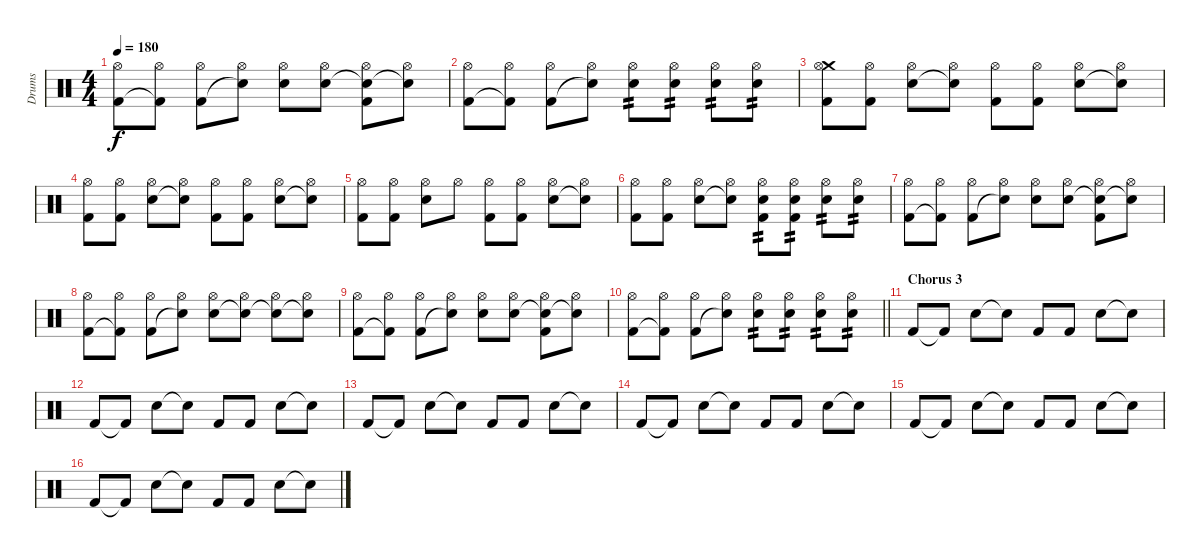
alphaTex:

\track ("Drums" "Drums") {instrument percussion}
\staff {score}
\articulation defaults
\ts (4 4)
\tempo 180
\clef neutral
\ks c
("Hi-Hat (open)" "Kick (hit) 2").8{dy f} ("Hi-Hat (open)" "Kick (hit) 2"{t}).8 ("Hi-Hat (open)" "Kick (hit) 2").8 ("Hi-Hat (open)" "Snare (hit)"{t}).8 ("Hi-Hat (open)" "Electric Snare (hit)").8 ("Hi-Hat (open)" "Electric Snare (hit)").8 ("Hi-Hat (open)" "Electric Snare (hit)"{t} "Kick (hit) 2").8 ("Hi-Hat (open)" "Snare (hit)"{t}).8 |
("Hi-Hat (open)" "Kick (hit) 2").8 ("Hi-Hat (open)" "Kick (hit) 2"{t}).8 ("Hi-Hat (open)" "Kick (hit) 2").8 ("Hi-Hat (open)" "Snare (hit)"{t}).8 ("Hi-Hat (open)" "Electric Snare (hit)").8{tp 2} ("Hi-Hat (open)" "Electric Snare (hit)").8{tp 2} ("Hi-Hat (open)" "Electric Snare (hit)").8{tp 2} ("Hi-Hat (open)" "Electric Snare (hit)").8{tp 2} |
("Crash medium (hit)" "Hi-Hat (open)" "Kick (hit) 2").8 ("Hi-Hat (open)" "Kick (hit) 2").8 ("Hi-Hat (open)" "Electric Snare (hit)").8 ("Hi-Hat (open)" "Snare (hit)"{t}).8 ("Hi-Hat (open)" "Kick (hit) 2").8 ("Hi-Hat (open)" "Kick (hit) 2").8 ("Hi-Hat (open)" "Electric Snare (hit)").8 ("Hi-Hat (open)" "Snare (hit)"{t}).8 |
("Hi-Hat (open)" "Kick (hit) 2").8 ("Hi-Hat (open)" "Kick (hit) 2").8 ("Hi-Hat (open)" "Electric Snare (hit)").8 ("Hi-Hat (open)" "Snare (hit)"{t}).8 ("Hi-Hat (open)" "Kick (hit) 2").8 ("Hi-Hat (open)" "Kick (hit) 2").8 ("Hi-Hat (open)" "Electric Snare (hit)").8 ("Hi-Hat (open)" "Snare (hit)"{t}).8 |
("Hi-Hat (open)" "Kick (hit) 2").8 ("Hi-Hat (open)" "Kick (hit) 2").8 ("Hi-Hat (open)" "Electric Snare (hit)").8 "Hi-Hat (open)".8 ("Hi-Hat (open)" "Kick (hit) 2").8 ("Hi-Hat (open)" "Kick (hit) 2").8 ("Hi-Hat (open)" "Electric Snare (hit)").8 ("Hi-Hat (open)" "Snare (hit)"{t}).8 |
("Hi-Hat (open)" "Kick (hit) 2").8 ("Hi-Hat (open)" "Kick (hit) 2").8 ("Hi-Hat (open)" "Electric Snare (hit)").8 ("Hi-Hat (open)" "Snare (hit)"{t}).8 ("Hi-Hat (open)" "Electric Snare (hit)" "Kick (hit) 2").8{tp 2} ("Hi-Hat (open)" "Electric Snare (hit)" "Kick (hit) 2").8{tp 2} ("Hi-Hat (open)" "Electric Snare (hit)").8{tp 2} ("Hi-Hat (open)" "Electric Snare (hit)").8{tp 2} |
("Hi-Hat (open)" "Kick (hit) 2").8 ("Hi-Hat (open)" "Kick (hit) 2"{t}).8 ("Hi-Hat (open)" "Kick (hit) 2").8 ("Hi-Hat (open)" "Snare (hit)"{t}).8 ("Hi-Hat (open)" "Electric Snare (hit)").8 ("Hi-Hat (open)" "Electric Snare (hit)").8 ("Hi-Hat (open)" "Electric Snare (hit)"{t} "Kick (hit) 2").8 ("Hi-Hat (open)" "Snare (hit)"{t}).8 |
("Hi-Hat (open)" "Kick (hit) 2").8 ("Hi-Hat (open)" "Kick (hit) 2"{t}).8 ("Hi-Hat (open)" "Kick (hit) 2").8 ("Hi-Hat (open)" "Snare (hit)"{t}).8 ("Hi-Hat (open)" "Electric Snare (hit)").8 ("Hi-Hat (open)" "Electric Snare (hit)"{t}).8 ("Hi-Hat (open)" "Electric Snare (hit)"{t}).8 ("Hi-Hat (open)" "Snare (hit)"{t}).8 |
("Hi-Hat (open)" "Kick (hit) 2").8 ("Hi-Hat (open)" "Kick (hit) 2"{t}).8 ("Hi-Hat (open)" "Kick (hit) 2").8 ("Hi-Hat (open)" "Snare (hit)"{t}).8 ("Hi-Hat (open)" "Electric Snare (hit)").8 ("Hi-Hat (open)" "Electric Snare (hit)").8 ("Hi-Hat (open)" "Electric Snare (hit)"{t} "Kick (hit) 2").8 ("Hi-Hat (open)" "Snare (hit)"{t}).8 |
\barLineRight lightlight
("Hi-Hat (open)" "Kick (hit) 2").8 ("Hi-Hat (open)" "Kick (hit) 2"{t}).8 ("Hi-Hat (open)" "Kick (hit) 2").8 ("Hi-Hat (open)" "Snare (hit)"{t}).8 ("Hi-Hat (open)" "Electric Snare (hit)").8{tp 2} ("Hi-Hat (open)" "Electric Snare (hit)").8{tp 2} ("Hi-Hat (open)" "Electric Snare (hit)").8{tp 2} ("Hi-Hat (open)" "Electric Snare (hit)").8{tp 2} |
\section ("" "Chorus 3")
"Kick (hit) 2".8 "Kick (hit) 2"{t}.8 "Electric Snare (hit)".8 "Snare (hit)"{t}.8 "Kick (hit) 2".8 "Kick (hit) 2".8 "Electric Snare (hit)".8 "Snare (hit)"{t}.8 |
"Kick (hit) 2".8 "Kick (hit) 2"{t}.8 "Electric Snare (hit)".8 "Snare (hit)"{t}.8 "Kick (hit) 2".8 "Kick (hit) 2".8 "Electric Snare (hit)".8 "Snare (hit)"{t}.8 |
"Kick (hit) 2".8 "Kick (hit) 2"{t}.8 "Electric Snare (hit)".8 "Snare (hit)"{t}.8 "Kick (hit) 2".8 "Kick (hit) 2".8 "Electric Snare (hit)".8 "Snare (hit)"{t}.8 |
"Kick (hit) 2".8 "Kick (hit) 2"{t}.8 "Electric Snare (hit)".8 "Snare (hit)"{t}.8 "Kick (hit) 2".8 "Kick (hit) 2".8 "Electric Snare (hit)".8 "Snare (hit)"{t}.8 |
"Kick (hit) 2".8 "Kick (hit) 2"{t}.8 "Electric Snare (hit)".8 "Snare (hit)"{t}.8 "Kick (hit) 2".8 "Kick (hit) 2".8 "Electric Snare (hit)".8 "Snare (hit)"{t}.8 |
"Kick (hit) 2".8 "Kick (hit) 2"{t}.8 "Electric Snare (hit)".8 "Snare (hit)"{t}.8 "Kick (hit) 2".8 "Kick (hit) 2".8 "Electric Snare (hit)".8 "Snare (hit)"{t}.8
